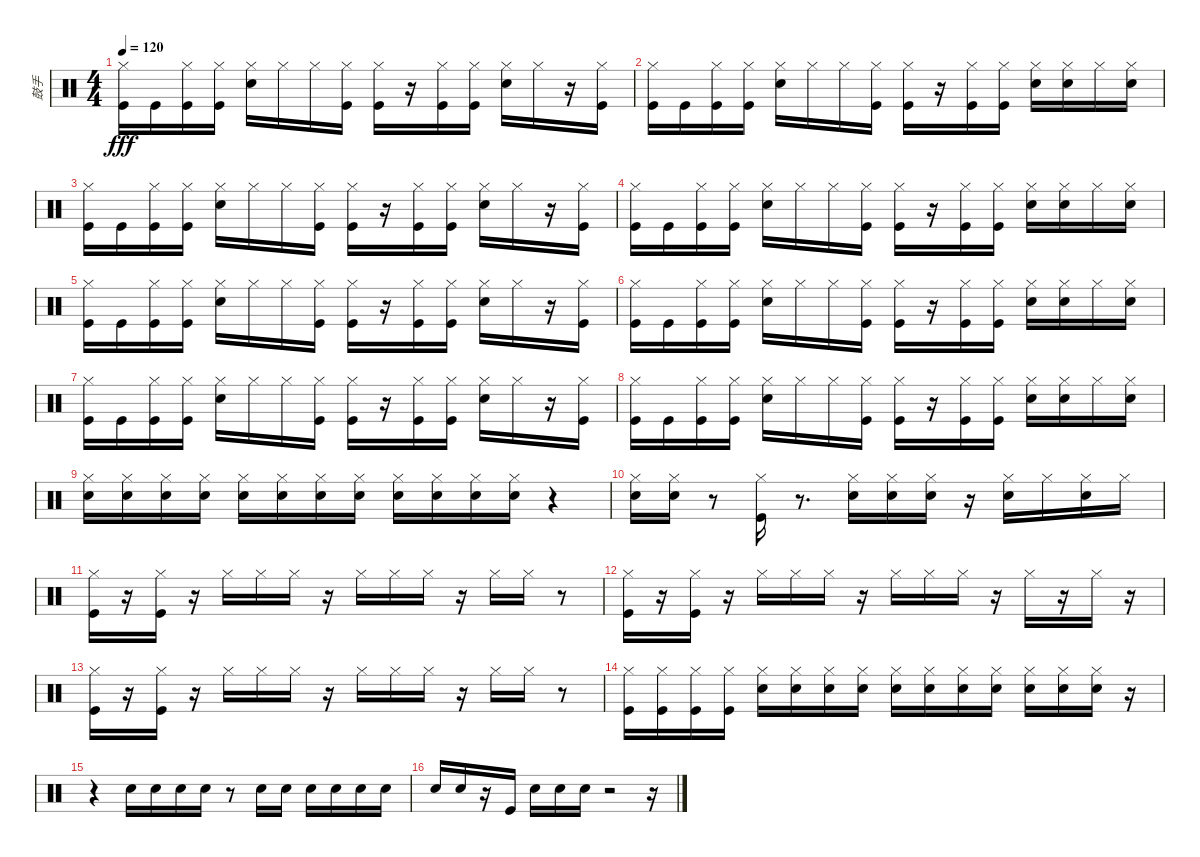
\track ("鼓手" "鼓手") {instrument percussion}
\staff {score}
\articulation defaults
\ts (4 4)
\tempo 120
\clef neutral
\ks c
("Kick (hit)" "Hi-Hat (closed)").16{dy fff} "Kick (hit)".16 ("Kick (hit)" "Hi-Hat (closed)").16 ("Kick (hit)" "Hi-Hat (closed)").16 ("Snare (hit) 2" "Hi-Hat (closed)").16 "Hi-Hat (closed)".16 "Hi-Hat (closed)".16 ("Kick (hit)" "Hi-Hat (closed)").16 ("Kick (hit)" "Hi-Hat (closed)").16 r.16 ("Kick (hit)" "Hi-Hat (closed)").16 ("Kick (hit)" "Hi-Hat (closed)").16 ("Snare (hit) 2" "Hi-Hat (closed)").16 "Hi-Hat (closed)".16 r.16 ("Kick (hit)" "Hi-Hat (closed)").16 |
("Kick (hit)" "Hi-Hat (closed)").16 "Kick (hit)".16 ("Kick (hit)" "Hi-Hat (closed)").16 ("Kick (hit)" "Hi-Hat (closed)").16 ("Snare (hit) 2" "Hi-Hat (closed)").16 "Hi-Hat (closed)".16 "Hi-Hat (closed)".16 ("Kick (hit)" "Hi-Hat (closed)").16 ("Kick (hit)" "Hi-Hat (closed)").16 r.16 ("Kick (hit)" "Hi-Hat (closed)").16 ("Kick (hit)" "Hi-Hat (closed)").16 ("Snare (hit) 2" "Hi-Hat (closed)").16 ("Snare (hit) 2" "Hi-Hat (closed)").16 "Hi-Hat (closed)".16 ("Snare (hit) 2" "Hi-Hat (closed)").16 |
("Kick (hit)" "Hi-Hat (closed)").16 "Kick (hit)".16 ("Kick (hit)" "Hi-Hat (closed)").16 ("Kick (hit)" "Hi-Hat (closed)").16 ("Snare (hit) 2" "Hi-Hat (closed)").16 "Hi-Hat (closed)".16 "Hi-Hat (closed)".16 ("Kick (hit)" "Hi-Hat (closed)").16 ("Kick (hit)" "Hi-Hat (closed)").16 r.16 ("Kick (hit)" "Hi-Hat (closed)").16 ("Kick (hit)" "Hi-Hat (closed)").16 ("Snare (hit) 2" "Hi-Hat (closed)").16 "Hi-Hat (closed)".16 r.16 ("Kick (hit)" "Hi-Hat (closed)").16 |
("Kick (hit)" "Hi-Hat (closed)").16 "Kick (hit)".16 ("Kick (hit)" "Hi-Hat (closed)").16 ("Kick (hit)" "Hi-Hat (closed)").16 ("Snare (hit) 2" "Hi-Hat (closed)").16 "Hi-Hat (closed)".16 "Hi-Hat (closed)".16 ("Kick (hit)" "Hi-Hat (closed)").16 ("Kick (hit)" "Hi-Hat (closed)").16 r.16 ("Kick (hit)" "Hi-Hat (closed)").16 ("Kick (hit)" "Hi-Hat (closed)").16 ("Snare (hit) 2" "Hi-Hat (closed)").16 ("Snare (hit) 2" "Hi-Hat (closed)").16 "Hi-Hat (closed)".16 ("Snare (hit) 2" "Hi-Hat (closed)").16 |
("Kick (hit)" "Hi-Hat (closed)").16 "Kick (hit)".16 ("Kick (hit)" "Hi-Hat (closed)").16 ("Kick (hit)" "Hi-Hat (closed)").16 ("Snare (hit) 2" "Hi-Hat (closed)").16 "Hi-Hat (closed)".16 "Hi-Hat (closed)".16 ("Kick (hit)" "Hi-Hat (closed)").16 ("Kick (hit)" "Hi-Hat (closed)").16 r.16 ("Kick (hit)" "Hi-Hat (closed)").16 ("Kick (hit)" "Hi-Hat (closed)").16 ("Snare (hit) 2" "Hi-Hat (closed)").16 "Hi-Hat (closed)".16 r.16 ("Kick (hit)" "Hi-Hat (closed)").16 |
("Kick (hit)" "Hi-Hat (closed)").16 "Kick (hit)".16 ("Kick (hit)" "Hi-Hat (closed)").16 ("Kick (hit)" "Hi-Hat (closed)").16 ("Snare (hit) 2" "Hi-Hat (closed)").16 "Hi-Hat (closed)".16 "Hi-Hat (closed)".16 ("Kick (hit)" "Hi-Hat (closed)").16 ("Kick (hit)" "Hi-Hat (closed)").16 r.16 ("Kick (hit)" "Hi-Hat (closed)").16 ("Kick (hit)" "Hi-Hat (closed)").16 ("Snare (hit) 2" "Hi-Hat (closed)").16 ("Snare (hit) 2" "Hi-Hat (closed)").16 "Hi-Hat (closed)".16 ("Snare (hit) 2" "Hi-Hat (closed)").16 |
("Kick (hit)" "Hi-Hat (closed)").16 "Kick (hit)".16 ("Kick (hit)" "Hi-Hat (closed)").16 ("Kick (hit)" "Hi-Hat (closed)").16 ("Snare (hit) 2" "Hi-Hat (closed)").16 "Hi-Hat (closed)".16 "Hi-Hat (closed)".16 ("Kick (hit)" "Hi-Hat (closed)").16 ("Kick (hit)" "Hi-Hat (closed)").16 r.16 ("Kick (hit)" "Hi-Hat (closed)").16 ("Kick (hit)" "Hi-Hat (closed)").16 ("Snare (hit) 2" "Hi-Hat (closed)").16 "Hi-Hat (closed)".16 r.16 ("Kick (hit)" "Hi-Hat (closed)").16 |
("Kick (hit)" "Hi-Hat (closed)").16 "Kick (hit)".16 ("Kick (hit)" "Hi-Hat (closed)").16 ("Kick (hit)" "Hi-Hat (closed)").16 ("Snare (hit) 2" "Hi-Hat (closed)").16 "Hi-Hat (closed)".16 "Hi-Hat (closed)".16 ("Kick (hit)" "Hi-Hat (closed)").16 ("Kick (hit)" "Hi-Hat (closed)").16 r.16 ("Kick (hit)" "Hi-Hat (closed)").16 ("Kick (hit)" "Hi-Hat (closed)").16 ("Snare (hit) 2" "Hi-Hat (closed)").16 ("Snare (hit) 2" "Hi-Hat (closed)").16 "Hi-Hat (closed)".16 ("Snare (hit) 2" "Hi-Hat (closed)").16 |
("Snare (hit) 2" "Hi-Hat (closed)").16 ("Snare (hit) 2" "Hi-Hat (closed)").16 ("Snare (hit) 2" "Hi-Hat (closed)").16 ("Snare (hit) 2" "Hi-Hat (closed)").16 ("Snare (hit) 2" "Hi-Hat (closed)").16 ("Snare (hit) 2" "Hi-Hat (closed)").16 ("Snare (hit) 2" "Hi-Hat (closed)").16 ("Snare (hit) 2" "Hi-Hat (closed)").16 ("Snare (hit) 2" "Hi-Hat (closed)").16 ("Snare (hit) 2" "Hi-Hat (closed)").16 ("Snare (hit) 2" "Hi-Hat (closed)").16 ("Snare (hit) 2" "Hi-Hat (closed)").16 r.4 |
("Snare (hit) 2" "Hi-Hat (closed)").16 ("Snare (hit) 2" "Hi-Hat (closed)").16 r.8 ("Kick (hit)" "Hi-Hat (closed)").16 r.8{d} ("Snare (hit) 2" "Hi-Hat (closed)").16 ("Snare (hit) 2" "Hi-Hat (closed)").16 ("Snare (hit) 2" "Hi-Hat (closed)").16 r.16 ("Snare (hit) 2" "Hi-Hat (closed)").16 "Hi-Hat (closed)".16 ("Snare (hit) 2" "Hi-Hat (closed)").16 "Hi-Hat (closed)".16 |
("Kick (hit)" "Hi-Hat (closed)").16 r.16 ("Kick (hit)" "Hi-Hat (closed)").16 r.16 "Hi-Hat (closed)".16 "Hi-Hat (closed)".16 "Hi-Hat (closed)".16 r.16 "Hi-Hat (closed)".16 "Hi-Hat (closed)".16 "Hi-Hat (closed)".16 r.16 "Hi-Hat (closed)".16 "Hi-Hat (closed)".16 r.8 |
("Kick (hit)" "Hi-Hat (closed)").16 r.16 ("Kick (hit)" "Hi-Hat (closed)").16 r.16 "Hi-Hat (closed)".16 "Hi-Hat (closed)".16 "Hi-Hat (closed)".16 r.16 "Hi-Hat (closed)".16 "Hi-Hat (closed)".16 "Hi-Hat (closed)".16 r.16 "Hi-Hat (closed)".16 r.16 "Hi-Hat (closed)".16 r.16 |
("Kick (hit)" "Hi-Hat (closed)").16 r.16 ("Kick (hit)" "Hi-Hat (closed)").16 r.16 "Hi-Hat (closed)".16 "Hi-Hat (closed)".16 "Hi-Hat (closed)".16 r.16 "Hi-Hat (closed)".16 "Hi-Hat (closed)".16 "Hi-Hat (closed)".16 r.16 "Hi-Hat (closed)".16 "Hi-Hat (closed)".16 r.8 |
("Kick (hit)" "Hi-Hat (closed)").16 ("Kick (hit)" "Hi-Hat (closed)").16 ("Kick (hit)" "Hi-Hat (closed)").16 ("Kick (hit)" "Hi-Hat (closed)").16 ("Snare (hit) 2" "Hi-Hat (closed)").16 ("Snare (hit) 2" "Hi-Hat (closed)").16 ("Snare (hit) 2" "Hi-Hat (closed)").16 ("Snare (hit) 2" "Hi-Hat (closed)").16 ("Snare (hit) 2" "Hi-Hat (closed)").16 ("Snare (hit) 2" "Hi-Hat (closed)").16 ("Snare (hit) 2" "Hi-Hat (closed)").16 ("Snare (hit) 2" "Hi-Hat (closed)").16 ("Snare (hit) 2" "Hi-Hat (closed)").16 ("Snare (hit) 2" "Hi-Hat (closed)").16 ("Snare (hit) 2" "Hi-Hat (closed)").16 r.16 |
r.4 "Snare (hit) 2".16 "Snare (hit) 2".16 "Snare (hit) 2".16 "Snare (hit) 2".16 r.8 "Snare (hit) 2".16 "Snare (hit) 2".16 "Snare (hit) 2".16 "Snare (hit) 2".16 "Snare (hit) 2".16 "Snare (hit) 2".16 |
"Snare (hit) 2".16 "Snare (hit) 2".16 r.16 "Kick (hit)".16 "Snare (hit) 2".16 "Snare (hit) 2".16 "Snare (hit) 2".16 r.2 r.16
